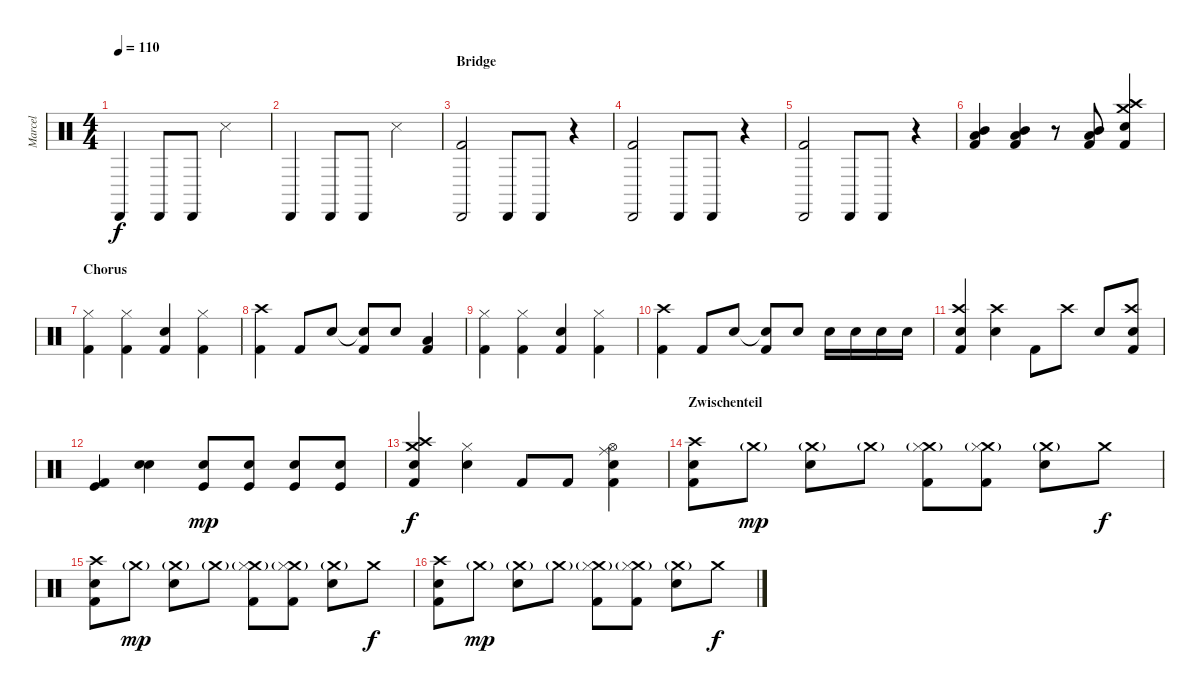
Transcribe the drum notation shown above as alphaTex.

\track ("Marcel" "Marcel") {instrument percussion}
\staff {score}
\articulation defaults
\ts (4 4)
\tempo 110
\clef neutral
\ks c "Cabasa (hit)".4{dy f} "Cabasa (hit)".8 "Cabasa (hit)".8 "Snare (side stick) 3".2{volume 16}
|
"Cabasa (hit)".4 "Cabasa (hit)".8 "Cabasa (hit)".8 "Snare (side stick) 3".2{volume 16} |
\section ("" "Bridge")
("Cabasa (hit)" "Kick (hit) 2").2 "Cabasa (hit)".8 "Cabasa (hit)".8 r.4 |
("Cabasa (hit)" "Kick (hit) 2").2 "Cabasa (hit)".8 "Cabasa (hit)".8 r.4 |
("Cabasa (hit)" "Kick (hit) 2").2 "Cabasa (hit)".8 "Cabasa (hit)".8 r.4 |
("Low Tom (hit)" "Mid Tom (hit)" "Kick (hit) 2").4 ("Low Tom (hit)" "Mid Tom (hit)" "Kick (hit) 2").4 r.8 ("Low Tom (hit)" "Mid Tom (hit)" "Kick (hit) 2").8 ("Crash medium (hit)" "Crash high (hit)" "Electric Snare (hit)" "Kick (hit) 2").4 |
\section ("" "Chorus")
("Hi-Hat (closed)" "Kick (hit) 2").4 ("Hi-Hat (closed)" "Kick (hit) 2").4 ("Electric Snare (hit)" "Kick (hit) 2").4 ("Hi-Hat (closed)" "Kick (hit) 2").4 |
("Crash high (hit)" "Kick (hit) 2").4 "Kick (hit) 2".8 "Electric Snare (hit)".8 ("Snare (hit) 2"{t} "Kick (hit) 2").8 "Electric Snare (hit)".8 ("Low Tom (hit)" "Kick (hit) 2").4 |
("Hi-Hat (closed)" "Kick (hit) 2").4 ("Hi-Hat (closed)" "Kick (hit) 2").4 ("Electric Snare (hit)" "Kick (hit) 2").4 ("Hi-Hat (closed)" "Kick (hit) 2").4 |
("Crash high (hit)" "Kick (hit) 2").4 "Kick (hit) 2".8 "Electric Snare (hit)".8 ("Snare (hit) 2"{t} "Kick (hit) 2").8 "Electric Snare (hit)".8 "Electric Snare (hit)".16 "Electric Snare (hit)".16 "Electric Snare (hit)".16 "Electric Snare (hit)".16 |
("Crash high (hit)" "Electric Snare (hit)" "Kick (hit) 2").4 ("Crash high (hit)" "Electric Snare (hit)").4 "Kick (hit) 2".8 "Crash high (hit)".8 "Electric Snare (hit)".8 ("Crash high (hit)" "Electric Snare (hit)" "Kick (hit) 2").8 |
("Kick (hit)" "Kick (hit) 2").4 ("Electric Snare (hit)" "Snare (hit) 2").4 ("Kick (hit)" "Electric Snare (hit)").8{dy mp} ("Kick (hit)" "Electric Snare (hit)").8 ("Kick (hit)" "Electric Snare (hit)").8 ("Kick (hit)" "Electric Snare (hit)").8 |
("Crash medium (hit)" "Crash high (hit)" "Electric Snare (hit)" "Kick (hit) 2").4{dy f} ("Hi-Hat (closed)" "Electric Snare (hit)").4 "Kick (hit) 2".8 "Kick (hit) 2".8 ("Ride (middle)" "Hi-Hat (open)" "Electric Snare (hit)" "Kick (hit) 2").4 |
\section ("" "Zwischenteil")
("Crash high (hit)" "Electric Snare (hit)" "Kick (hit) 2").8 "Crash medium (hit)"{g}.8{dy mp} ("Crash medium (hit)"{g} "Electric Snare (hit)").8 "Crash medium (hit)"{g}.8 ("Crash medium (hit)"{g} "Hi-Hat (closed)" "Kick (hit) 2").8 ("Crash medium (hit)"{g} "Hi-Hat (closed)" "Kick (hit) 2").8 ("Crash medium (hit)"{g} "Electric Snare (hit)").8 "Crash medium (hit)".8{dy f} |
("Crash high (hit)" "Electric Snare (hit)" "Kick (hit) 2").8 "Crash medium (hit)"{g}.8{dy mp} ("Crash medium (hit)"{g} "Electric Snare (hit)").8 "Crash medium (hit)"{g}.8 ("Crash medium (hit)"{g} "Hi-Hat (closed)" "Kick (hit) 2").8 ("Crash medium (hit)"{g} "Hi-Hat (closed)" "Kick (hit) 2").8 ("Crash medium (hit)"{g} "Electric Snare (hit)").8 "Crash medium (hit)".8{dy f} |
("Crash high (hit)" "Electric Snare (hit)" "Kick (hit) 2").8 "Crash medium (hit)"{g}.8{dy mp} ("Crash medium (hit)"{g} "Electric Snare (hit)").8 "Crash medium (hit)"{g}.8 ("Crash medium (hit)"{g} "Hi-Hat (closed)" "Kick (hit) 2").8 ("Crash medium (hit)"{g} "Hi-Hat (closed)" "Kick (hit) 2").8 ("Crash medium (hit)"{g} "Electric Snare (hit)").8 "Crash medium (hit)".8{dy f}
